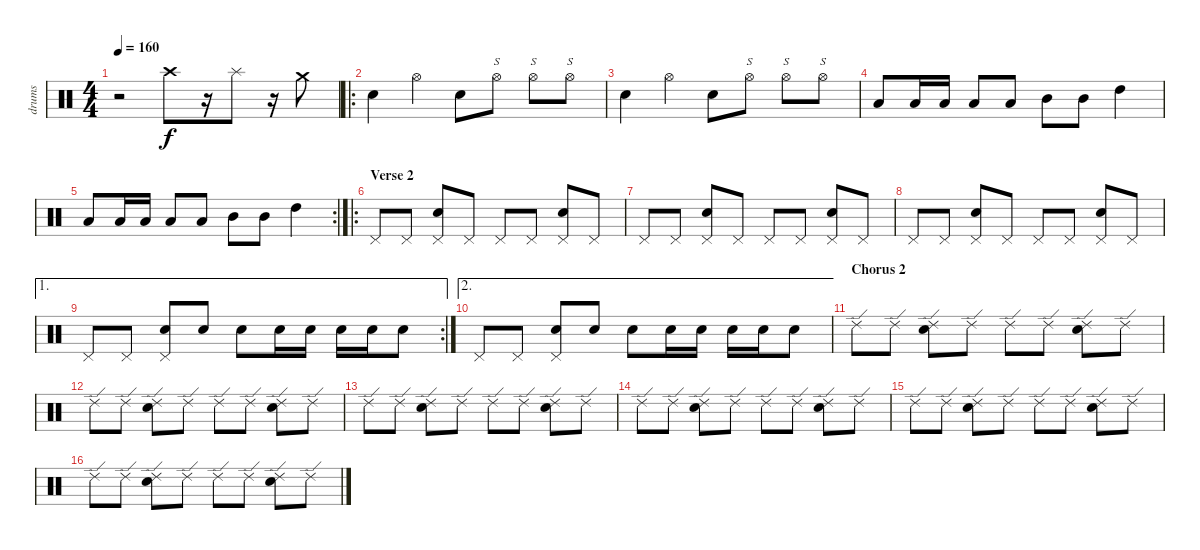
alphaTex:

\track ("drums" "drums") {instrument percussion}
\staff {score}
\articulation defaults
\ts (4 4)
\tempo 160
\clef neutral
\ks c
r.2{dy f} "Crash high (hit)".8 r.16 "Splash (hit)".8 r.16 "Crash medium (hit)".8 |
\ro "Electric Snare (hit)".4 "Hi-Hat (open)".4 "Electric Snare (hit)".8 "Hi-Hat (open)".8{s} "Hi-Hat (open)".8{s} "Hi-Hat (open)".8{s}
|
"Electric Snare (hit)".4 "Hi-Hat (open)".4 "Electric Snare (hit)".8 "Hi-Hat (open)".8{s} "Hi-Hat (open)".8{s} "Hi-Hat (open)".8{s} |
"Low Tom (hit)".8 "Low Tom (hit)".16 "Low Tom (hit)".16 "Low Tom (hit)".8 "Low Tom (hit)".8 "Mid Tom (hit)".8 "Mid Tom (hit)".8 "High Tom (hit)".4 |
\rc 2 "Low Tom (hit)".8 "Low Tom (hit)".16 "Low Tom (hit)".16 "Low Tom (hit)".8 "Low Tom (hit)".8 "Mid Tom (hit)".8 "Mid Tom (hit)".8 "High Tom (hit)".4
|
\ro
\section ("" "Verse 2")
"Pedal Hi-Hat (hit)".8 "Pedal Hi-Hat (hit)".8 ("Electric Snare (hit)" "Pedal Hi-Hat (hit)").8 "Pedal Hi-Hat (hit)".8 "Pedal Hi-Hat (hit)".8 "Pedal Hi-Hat (hit)".8 ("Electric Snare (hit)" "Pedal Hi-Hat (hit)").8 "Pedal Hi-Hat (hit)".8 |
"Pedal Hi-Hat (hit)".8 "Pedal Hi-Hat (hit)".8 ("Electric Snare (hit)" "Pedal Hi-Hat (hit)").8 "Pedal Hi-Hat (hit)".8 "Pedal Hi-Hat (hit)".8 "Pedal Hi-Hat (hit)".8 ("Electric Snare (hit)" "Pedal Hi-Hat (hit)").8 "Pedal Hi-Hat (hit)".8 |
"Pedal Hi-Hat (hit)".8 "Pedal Hi-Hat (hit)".8 ("Electric Snare (hit)" "Pedal Hi-Hat (hit)").8 "Pedal Hi-Hat (hit)".8 "Pedal Hi-Hat (hit)".8 "Pedal Hi-Hat (hit)".8 ("Electric Snare (hit)" "Pedal Hi-Hat (hit)").8 "Pedal Hi-Hat (hit)".8 |
\ae 1
\rc 2 "Pedal Hi-Hat (hit)".8 "Pedal Hi-Hat (hit)".8
("Electric Snare (hit)" "Pedal Hi-Hat (hit)").8 "Electric Snare (hit)".8 "Electric Snare (hit)".8 "Electric Snare (hit)".16 "Electric Snare (hit)".16 "Electric Snare (hit)".16 "Electric Snare (hit)".16 "Electric Snare (hit)".8 |
\ae 2 "Pedal Hi-Hat (hit)".8 "Pedal Hi-Hat (hit)".8
("Electric Snare (hit)" "Pedal Hi-Hat (hit)").8 "Electric Snare (hit)".8 "Electric Snare (hit)".8 "Electric Snare (hit)".16 "Electric Snare (hit)".16 "Electric Snare (hit)".16 "Electric Snare (hit)".16 "Electric Snare (hit)".8 |
\section ("" "Chorus 2")
"Ride (edge) 2".8 "Ride (edge) 2".8 ("Electric Snare (hit)" "Ride (edge) 2").8 "Ride (edge) 2".8 "Ride (edge) 2".8 "Ride (edge) 2".8 ("Electric Snare (hit)" "Ride (edge) 2").8 "Ride (edge) 2".8 |
"Ride (edge) 2".8 "Ride (edge) 2".8 ("Electric Snare (hit)" "Ride (edge) 2").8 "Ride (edge) 2".8 "Ride (edge) 2".8 "Ride (edge) 2".8 ("Electric Snare (hit)" "Ride (edge) 2").8 "Ride (edge) 2".8 |
"Ride (edge) 2".8 "Ride (edge) 2".8 ("Electric Snare (hit)" "Ride (edge) 2").8 "Ride (edge) 2".8 "Ride (edge) 2".8 "Ride (edge) 2".8 ("Electric Snare (hit)" "Ride (edge) 2").8 "Ride (edge) 2".8 |
"Ride (edge) 2".8 "Ride (edge) 2".8 ("Electric Snare (hit)" "Ride (edge) 2").8 "Ride (edge) 2".8 "Ride (edge) 2".8 "Ride (edge) 2".8 ("Electric Snare (hit)" "Ride (edge) 2").8 "Ride (edge) 2".8 |
"Ride (edge) 2".8 "Ride (edge) 2".8 ("Electric Snare (hit)" "Ride (edge) 2").8 "Ride (edge) 2".8 "Ride (edge) 2".8 "Ride (edge) 2".8 ("Electric Snare (hit)" "Ride (edge) 2").8 "Ride (edge) 2".8 |
"Ride (edge) 2".8 "Ride (edge) 2".8 ("Electric Snare (hit)" "Ride (edge) 2").8 "Ride (edge) 2".8 "Ride (edge) 2".8 "Ride (edge) 2".8 ("Electric Snare (hit)" "Ride (edge) 2").8 "Ride (edge) 2".8
